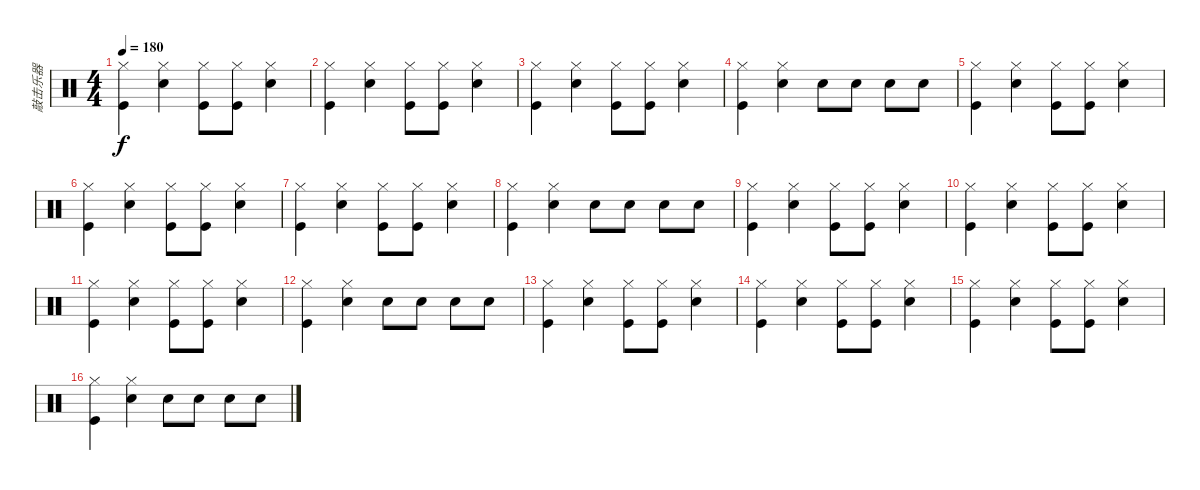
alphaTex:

\track ("敲击乐器" "敲击乐器") {instrument percussion}
\staff {score}
\articulation defaults
\ts (4 4)
\tempo 180
\clef neutral
\ks c
("Hi-Hat (closed)" "Kick (hit)").4{dy f} ("Hi-Hat (closed)" "Electric Snare (hit)").4 ("Hi-Hat (closed)" "Kick (hit)").8 ("Hi-Hat (closed)" "Kick (hit)").8 ("Hi-Hat (closed)" "Electric Snare (hit)").4 |
("Hi-Hat (closed)" "Kick (hit)").4 ("Hi-Hat (closed)" "Electric Snare (hit)").4 ("Hi-Hat (closed)" "Kick (hit)").8 ("Hi-Hat (closed)" "Kick (hit)").8 ("Hi-Hat (closed)" "Electric Snare (hit)").4 |
("Hi-Hat (closed)" "Kick (hit)").4 ("Hi-Hat (closed)" "Electric Snare (hit)").4 ("Hi-Hat (closed)" "Kick (hit)").8 ("Hi-Hat (closed)" "Kick (hit)").8 ("Hi-Hat (closed)" "Electric Snare (hit)").4 |
("Hi-Hat (closed)" "Kick (hit)").4 ("Hi-Hat (closed)" "Electric Snare (hit)").4 "Electric Snare (hit)".8 "Electric Snare (hit)".8 "Electric Snare (hit)".8 "Electric Snare (hit)".8 |
("Hi-Hat (closed)" "Kick (hit)").4 ("Hi-Hat (closed)" "Electric Snare (hit)").4 ("Hi-Hat (closed)" "Kick (hit)").8 ("Hi-Hat (closed)" "Kick (hit)").8 ("Hi-Hat (closed)" "Electric Snare (hit)").4 |
("Hi-Hat (closed)" "Kick (hit)").4 ("Hi-Hat (closed)" "Electric Snare (hit)").4 ("Hi-Hat (closed)" "Kick (hit)").8 ("Hi-Hat (closed)" "Kick (hit)").8 ("Hi-Hat (closed)" "Electric Snare (hit)").4 |
("Hi-Hat (closed)" "Kick (hit)").4 ("Hi-Hat (closed)" "Electric Snare (hit)").4 ("Hi-Hat (closed)" "Kick (hit)").8 ("Hi-Hat (closed)" "Kick (hit)").8 ("Hi-Hat (closed)" "Electric Snare (hit)").4 |
("Hi-Hat (closed)" "Kick (hit)").4 ("Hi-Hat (closed)" "Electric Snare (hit)").4 "Electric Snare (hit)".8 "Electric Snare (hit)".8 "Electric Snare (hit)".8 "Electric Snare (hit)".8 |
("Hi-Hat (closed)" "Kick (hit)").4 ("Hi-Hat (closed)" "Electric Snare (hit)").4 ("Hi-Hat (closed)" "Kick (hit)").8 ("Hi-Hat (closed)" "Kick (hit)").8 ("Hi-Hat (closed)" "Electric Snare (hit)").4 |
("Hi-Hat (closed)" "Kick (hit)").4 ("Hi-Hat (closed)" "Electric Snare (hit)").4 ("Hi-Hat (closed)" "Kick (hit)").8 ("Hi-Hat (closed)" "Kick (hit)").8 ("Hi-Hat (closed)" "Electric Snare (hit)").4 |
("Hi-Hat (closed)" "Kick (hit)").4 ("Hi-Hat (closed)" "Electric Snare (hit)").4 ("Hi-Hat (closed)" "Kick (hit)").8 ("Hi-Hat (closed)" "Kick (hit)").8 ("Hi-Hat (closed)" "Electric Snare (hit)").4 |
("Hi-Hat (closed)" "Kick (hit)").4 ("Hi-Hat (closed)" "Electric Snare (hit)").4 "Electric Snare (hit)".8 "Electric Snare (hit)".8 "Electric Snare (hit)".8 "Electric Snare (hit)".8 |
("Hi-Hat (closed)" "Kick (hit)").4 ("Hi-Hat (closed)" "Electric Snare (hit)").4 ("Hi-Hat (closed)" "Kick (hit)").8 ("Hi-Hat (closed)" "Kick (hit)").8 ("Hi-Hat (closed)" "Electric Snare (hit)").4 |
("Hi-Hat (closed)" "Kick (hit)").4 ("Hi-Hat (closed)" "Electric Snare (hit)").4 ("Hi-Hat (closed)" "Kick (hit)").8 ("Hi-Hat (closed)" "Kick (hit)").8 ("Hi-Hat (closed)" "Electric Snare (hit)").4 |
("Hi-Hat (closed)" "Kick (hit)").4 ("Hi-Hat (closed)" "Electric Snare (hit)").4 ("Hi-Hat (closed)" "Kick (hit)").8 ("Hi-Hat (closed)" "Kick (hit)").8 ("Hi-Hat (closed)" "Electric Snare (hit)").4 |
("Hi-Hat (closed)" "Kick (hit)").4 ("Hi-Hat (closed)" "Electric Snare (hit)").4 "Electric Snare (hit)".8 "Electric Snare (hit)".8 "Electric Snare (hit)".8 "Electric Snare (hit)".8
